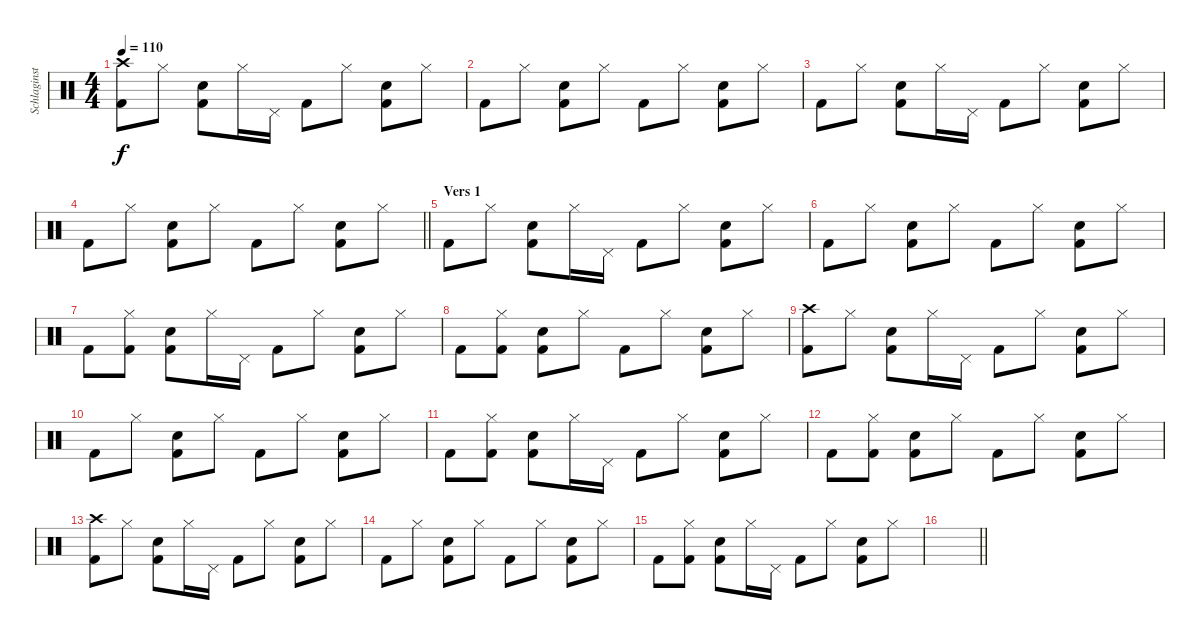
\track ("Schlaginstrumente - Auswahl" "Schlaginst") {instrument percussion}
\staff {score}
\articulation defaults
\ts (4 4)
\tempo 110
\clef neutral
\ks c
("Crash high (hit)" "Kick (hit) 2").8{dy f} "Hi-Hat (closed)".8 ("Snare (hit) 2" "Kick (hit) 2").8 "Hi-Hat (closed)".16 "Pedal Hi-Hat (hit)".16 "Kick (hit) 2".8 "Hi-Hat (closed)".8 ("Snare (hit) 2" "Kick (hit) 2").8 "Hi-Hat (closed)".8 |
"Kick (hit) 2".8 "Hi-Hat (closed)".8 ("Snare (hit) 2" "Kick (hit) 2").8 "Hi-Hat (closed)".8 "Kick (hit) 2".8 "Hi-Hat (closed)".8 ("Snare (hit) 2" "Kick (hit) 2").8 "Hi-Hat (closed)".8 |
"Kick (hit) 2".8 "Hi-Hat (closed)".8 ("Snare (hit) 2" "Kick (hit) 2").8 "Hi-Hat (closed)".16 "Pedal Hi-Hat (hit)".16 "Kick (hit) 2".8 "Hi-Hat (closed)".8 ("Snare (hit) 2" "Kick (hit) 2").8 "Hi-Hat (closed)".8 |
\barLineRight lightlight "Kick (hit) 2".8 "Hi-Hat (closed)".8
("Snare (hit) 2" "Kick (hit) 2").8 "Hi-Hat (closed)".8 "Kick (hit) 2".8 "Hi-Hat (closed)".8 ("Snare (hit) 2" "Kick (hit) 2").8 "Hi-Hat (closed)".8 |
\section ("" "Vers 1")
"Kick (hit) 2".8 "Hi-Hat (closed)".8 ("Snare (hit) 2" "Kick (hit) 2").8 "Hi-Hat (closed)".16 "Pedal Hi-Hat (hit)".16 "Kick (hit) 2".8 "Hi-Hat (closed)".8 ("Snare (hit) 2" "Kick (hit) 2").8 "Hi-Hat (closed)".8 |
"Kick (hit) 2".8 "Hi-Hat (closed)".8 ("Snare (hit) 2" "Kick (hit) 2").8 "Hi-Hat (closed)".8 "Kick (hit) 2".8 "Hi-Hat (closed)".8 ("Snare (hit) 2" "Kick (hit) 2").8 "Hi-Hat (closed)".8 |
"Kick (hit) 2".8 ("Hi-Hat (closed)" "Kick (hit) 2").8 ("Snare (hit) 2" "Kick (hit) 2").8 "Hi-Hat (closed)".16 "Pedal Hi-Hat (hit)".16 "Kick (hit) 2".8 "Hi-Hat (closed)".8 ("Snare (hit) 2" "Kick (hit) 2").8 "Hi-Hat (closed)".8 |
"Kick (hit) 2".8 ("Hi-Hat (closed)" "Kick (hit) 2").8 ("Snare (hit) 2" "Kick (hit) 2").8 "Hi-Hat (closed)".8 "Kick (hit) 2".8 "Hi-Hat (closed)".8 ("Snare (hit) 2" "Kick (hit) 2").8 "Hi-Hat (closed)".8 |
("Crash high (hit)" "Kick (hit) 2").8 "Hi-Hat (closed)".8 ("Snare (hit) 2" "Kick (hit) 2").8 "Hi-Hat (closed)".16 "Pedal Hi-Hat (hit)".16 "Kick (hit) 2".8 "Hi-Hat (closed)".8 ("Snare (hit) 2" "Kick (hit) 2").8 "Hi-Hat (closed)".8 |
"Kick (hit) 2".8 "Hi-Hat (closed)".8 ("Snare (hit) 2" "Kick (hit) 2").8 "Hi-Hat (closed)".8 "Kick (hit) 2".8 "Hi-Hat (closed)".8 ("Snare (hit) 2" "Kick (hit) 2").8 "Hi-Hat (closed)".8 |
"Kick (hit) 2".8 ("Hi-Hat (closed)" "Kick (hit) 2").8 ("Snare (hit) 2" "Kick (hit) 2").8 "Hi-Hat (closed)".16 "Pedal Hi-Hat (hit)".16 "Kick (hit) 2".8 "Hi-Hat (closed)".8 ("Snare (hit) 2" "Kick (hit) 2").8 "Hi-Hat (closed)".8 |
"Kick (hit) 2".8 ("Hi-Hat (closed)" "Kick (hit) 2").8 ("Snare (hit) 2" "Kick (hit) 2").8 "Hi-Hat (closed)".8 "Kick (hit) 2".8 "Hi-Hat (closed)".8 ("Snare (hit) 2" "Kick (hit) 2").8 "Hi-Hat (closed)".8 |
("Crash high (hit)" "Kick (hit) 2").8 "Hi-Hat (closed)".8 ("Snare (hit) 2" "Kick (hit) 2").8 "Hi-Hat (closed)".16 "Pedal Hi-Hat (hit)".16 "Kick (hit) 2".8 "Hi-Hat (closed)".8 ("Snare (hit) 2" "Kick (hit) 2").8 "Hi-Hat (closed)".8 |
"Kick (hit) 2".8 "Hi-Hat (closed)".8 ("Snare (hit) 2" "Kick (hit) 2").8 "Hi-Hat (closed)".8 "Kick (hit) 2".8 "Hi-Hat (closed)".8 ("Snare (hit) 2" "Kick (hit) 2").8 "Hi-Hat (closed)".8 |
"Kick (hit) 2".8 ("Hi-Hat (closed)" "Kick (hit) 2").8 ("Snare (hit) 2" "Kick (hit) 2").8 "Hi-Hat (closed)".16 "Pedal Hi-Hat (hit)".16 "Kick (hit) 2".8 "Hi-Hat (closed)".8 ("Snare (hit) 2" "Kick (hit) 2").8 "Hi-Hat (closed)".8 |
\barLineRight lightlight
